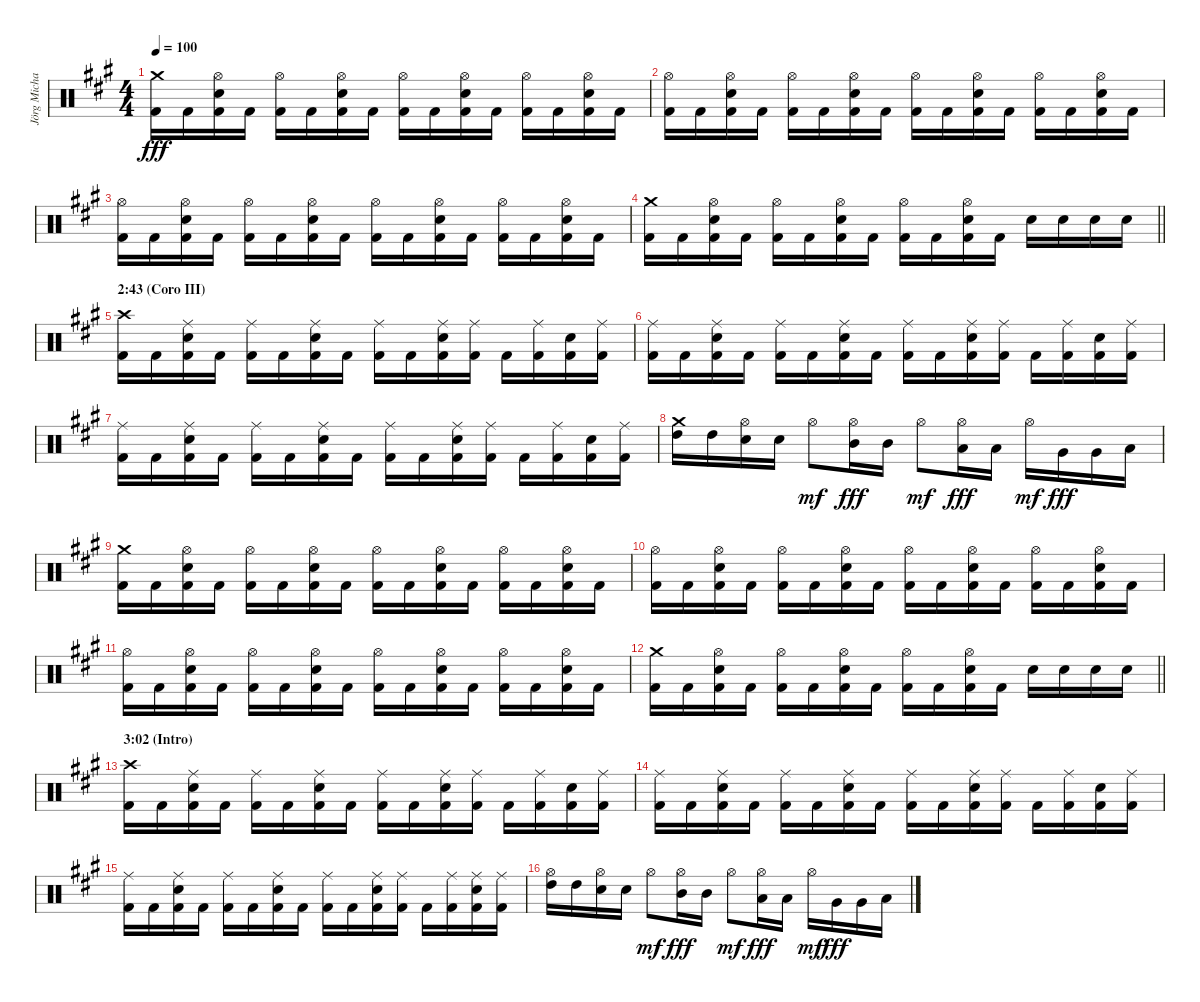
\track ("Jörg Michael (Batería)" "Jörg Micha") {instrument percussion}
\staff {score}
\articulation defaults
\ts (4 4)
\tempo 100
\clef neutral
\ks a
("Crash medium (hit)" "Kick (hit) 2").16{dy fff} "Kick (hit) 2".16 ("Hi-Hat (open)" "Snare (hit) 2" "Kick (hit) 2").16 "Kick (hit) 2".16 ("Hi-Hat (open)" "Kick (hit) 2").16 "Kick (hit) 2".16 ("Hi-Hat (open)" "Snare (hit) 2" "Kick (hit) 2").16 "Kick (hit) 2".16 ("Hi-Hat (open)" "Kick (hit) 2").16 "Kick (hit) 2".16 ("Hi-Hat (open)" "Snare (hit) 2" "Kick (hit) 2").16 "Kick (hit) 2".16 ("Hi-Hat (open)" "Kick (hit) 2").16 "Kick (hit) 2".16 ("Hi-Hat (open)" "Snare (hit) 2" "Kick (hit) 2").16 "Kick (hit) 2".16 |
("Hi-Hat (open)" "Kick (hit) 2").16 "Kick (hit) 2".16 ("Hi-Hat (open)" "Snare (hit) 2" "Kick (hit) 2").16 "Kick (hit) 2".16 ("Hi-Hat (open)" "Kick (hit) 2").16 "Kick (hit) 2".16 ("Hi-Hat (open)" "Snare (hit) 2" "Kick (hit) 2").16 "Kick (hit) 2".16 ("Hi-Hat (open)" "Kick (hit) 2").16 "Kick (hit) 2".16 ("Hi-Hat (open)" "Snare (hit) 2" "Kick (hit) 2").16 "Kick (hit) 2".16 ("Hi-Hat (open)" "Kick (hit) 2").16 "Kick (hit) 2".16 ("Hi-Hat (open)" "Snare (hit) 2" "Kick (hit) 2").16 "Kick (hit) 2".16 |
("Hi-Hat (open)" "Kick (hit) 2").16 "Kick (hit) 2".16 ("Hi-Hat (open)" "Snare (hit) 2" "Kick (hit) 2").16 "Kick (hit) 2".16 ("Hi-Hat (open)" "Kick (hit) 2").16 "Kick (hit) 2".16 ("Hi-Hat (open)" "Snare (hit) 2" "Kick (hit) 2").16 "Kick (hit) 2".16 ("Hi-Hat (open)" "Kick (hit) 2").16 "Kick (hit) 2".16 ("Hi-Hat (open)" "Snare (hit) 2" "Kick (hit) 2").16 "Kick (hit) 2".16 ("Hi-Hat (open)" "Kick (hit) 2").16 "Kick (hit) 2".16 ("Hi-Hat (open)" "Snare (hit) 2" "Kick (hit) 2").16 "Kick (hit) 2".16 |
\barLineRight lightlight
("Crash medium (hit)" "Kick (hit) 2").16 "Kick (hit) 2".16 ("Hi-Hat (open)" "Snare (hit) 2" "Kick (hit) 2").16 "Kick (hit) 2".16 ("Hi-Hat (open)" "Kick (hit) 2").16 "Kick (hit) 2".16 ("Hi-Hat (open)" "Snare (hit) 2" "Kick (hit) 2").16 "Kick (hit) 2".16 ("Hi-Hat (open)" "Kick (hit) 2").16 "Kick (hit) 2".16 ("Hi-Hat (open)" "Snare (hit) 2" "Kick (hit) 2").16 "Kick (hit) 2".16 "Snare (hit) 2".16 "Snare (hit) 2".16 "Snare (hit) 2".16 "Snare (hit) 2".16 |
\section ("" "2:43 (Coro III)")
("Crash high (hit)" "Kick (hit) 2").16{volume 13} "Kick (hit) 2".16 ("Ride (middle)" "Snare (hit) 2" "Kick (hit) 2").16 "Kick (hit) 2".16 ("Ride (middle)" "Kick (hit) 2").16 "Kick (hit) 2".16 ("Ride (middle)" "Snare (hit) 2" "Kick (hit) 2").16 "Kick (hit) 2".16 ("Ride (middle)" "Kick (hit) 2").16 "Kick (hit) 2".16 ("Ride (middle)" "Snare (hit) 2" "Kick (hit) 2").16 ("Ride (middle)" "Kick (hit) 2").16 "Kick (hit) 2".16 ("Ride (middle)" "Kick (hit) 2").16 ("Snare (hit) 2" "Kick (hit) 2").16 ("Ride (middle)" "Kick (hit) 2").16 |
("Ride (middle)" "Kick (hit) 2").16 "Kick (hit) 2".16 ("Ride (middle)" "Snare (hit) 2" "Kick (hit) 2").16 "Kick (hit) 2".16 ("Ride (middle)" "Kick (hit) 2").16 "Kick (hit) 2".16 ("Ride (middle)" "Snare (hit) 2" "Kick (hit) 2").16 "Kick (hit) 2".16 ("Ride (middle)" "Kick (hit) 2").16 "Kick (hit) 2".16 ("Ride (middle)" "Snare (hit) 2" "Kick (hit) 2").16 ("Ride (middle)" "Kick (hit) 2").16 "Kick (hit) 2".16 ("Ride (middle)" "Kick (hit) 2").16 ("Snare (hit) 2" "Kick (hit) 2").16 ("Ride (middle)" "Kick (hit) 2").16 |
("Ride (middle)" "Kick (hit) 2").16 "Kick (hit) 2".16 ("Ride (middle)" "Snare (hit) 2" "Kick (hit) 2").16 "Kick (hit) 2".16 ("Ride (middle)" "Kick (hit) 2").16 "Kick (hit) 2".16 ("Ride (middle)" "Snare (hit) 2" "Kick (hit) 2").16 "Kick (hit) 2".16 ("Ride (middle)" "Kick (hit) 2").16 "Kick (hit) 2".16 ("Ride (middle)" "Snare (hit) 2" "Kick (hit) 2").16 ("Ride (middle)" "Kick (hit) 2").16 "Kick (hit) 2".16 ("Ride (middle)" "Kick (hit) 2").16 ("Snare (hit) 2" "Kick (hit) 2").16 ("Ride (middle)" "Kick (hit) 2").16 |
("Crash medium (hit)" "High Tom (hit)").16 "High Tom (hit)".16 ("Hi-Hat (open)" "Snare (hit) 2").16 "Snare (hit) 2".16 "Hi-Hat (open)".8{dy mf} ("Hi-Hat (open)" "Mid Tom (hit)").16{dy fff} "Mid Tom (hit)".16 "Hi-Hat (open)".8{dy mf} ("Hi-Hat (open)" "Low Tom (hit)").16{dy fff} "Low Tom (hit)".16 "Hi-Hat (open)".16{dy mf} "Very Low Tom (hit)".16{dy fff} "Very Low Tom (hit)".16 "Low Floor Tom (hit)".16 |
("Crash medium (hit)" "Kick (hit) 2").16 "Kick (hit) 2".16 ("Hi-Hat (open)" "Snare (hit) 2" "Kick (hit) 2").16 "Kick (hit) 2".16 ("Hi-Hat (open)" "Kick (hit) 2").16 "Kick (hit) 2".16 ("Hi-Hat (open)" "Snare (hit) 2" "Kick (hit) 2").16 "Kick (hit) 2".16 ("Hi-Hat (open)" "Kick (hit) 2").16 "Kick (hit) 2".16 ("Hi-Hat (open)" "Snare (hit) 2" "Kick (hit) 2").16 "Kick (hit) 2".16 ("Hi-Hat (open)" "Kick (hit) 2").16 "Kick (hit) 2".16 ("Hi-Hat (open)" "Snare (hit) 2" "Kick (hit) 2").16 "Kick (hit) 2".16 |
("Hi-Hat (open)" "Kick (hit) 2").16 "Kick (hit) 2".16 ("Hi-Hat (open)" "Snare (hit) 2" "Kick (hit) 2").16 "Kick (hit) 2".16 ("Hi-Hat (open)" "Kick (hit) 2").16 "Kick (hit) 2".16 ("Hi-Hat (open)" "Snare (hit) 2" "Kick (hit) 2").16 "Kick (hit) 2".16 ("Hi-Hat (open)" "Kick (hit) 2").16 "Kick (hit) 2".16 ("Hi-Hat (open)" "Snare (hit) 2" "Kick (hit) 2").16 "Kick (hit) 2".16 ("Hi-Hat (open)" "Kick (hit) 2").16 "Kick (hit) 2".16 ("Hi-Hat (open)" "Snare (hit) 2" "Kick (hit) 2").16 "Kick (hit) 2".16 |
("Hi-Hat (open)" "Kick (hit) 2").16 "Kick (hit) 2".16 ("Hi-Hat (open)" "Snare (hit) 2" "Kick (hit) 2").16 "Kick (hit) 2".16 ("Hi-Hat (open)" "Kick (hit) 2").16 "Kick (hit) 2".16 ("Hi-Hat (open)" "Snare (hit) 2" "Kick (hit) 2").16 "Kick (hit) 2".16 ("Hi-Hat (open)" "Kick (hit) 2").16 "Kick (hit) 2".16 ("Hi-Hat (open)" "Snare (hit) 2" "Kick (hit) 2").16 "Kick (hit) 2".16 ("Hi-Hat (open)" "Kick (hit) 2").16 "Kick (hit) 2".16 ("Hi-Hat (open)" "Snare (hit) 2" "Kick (hit) 2").16 "Kick (hit) 2".16 |
\barLineRight lightlight
("Crash medium (hit)" "Kick (hit) 2").16 "Kick (hit) 2".16 ("Hi-Hat (open)" "Snare (hit) 2" "Kick (hit) 2").16 "Kick (hit) 2".16 ("Hi-Hat (open)" "Kick (hit) 2").16 "Kick (hit) 2".16 ("Hi-Hat (open)" "Snare (hit) 2" "Kick (hit) 2").16 "Kick (hit) 2".16 ("Hi-Hat (open)" "Kick (hit) 2").16 "Kick (hit) 2".16 ("Hi-Hat (open)" "Snare (hit) 2" "Kick (hit) 2").16 "Kick (hit) 2".16 "Snare (hit) 2".16 "Snare (hit) 2".16 "Snare (hit) 2".16 "Snare (hit) 2".16 |
\section ("" "3:02 (Intro)")
("Crash high (hit)" "Kick (hit) 2").16 "Kick (hit) 2".16 ("Ride (middle)" "Snare (hit) 2" "Kick (hit) 2").16 "Kick (hit) 2".16 ("Ride (middle)" "Kick (hit) 2").16 "Kick (hit) 2".16 ("Ride (middle)" "Snare (hit) 2" "Kick (hit) 2").16 "Kick (hit) 2".16 ("Ride (middle)" "Kick (hit) 2").16 "Kick (hit) 2".16 ("Ride (middle)" "Snare (hit) 2" "Kick (hit) 2").16 ("Ride (middle)" "Kick (hit) 2").16 "Kick (hit) 2".16 ("Ride (middle)" "Kick (hit) 2").16 ("Snare (hit) 2" "Kick (hit) 2").16 ("Ride (middle)" "Kick (hit) 2").16 |
("Ride (middle)" "Kick (hit) 2").16 "Kick (hit) 2".16 ("Ride (middle)" "Snare (hit) 2" "Kick (hit) 2").16 "Kick (hit) 2".16 ("Ride (middle)" "Kick (hit) 2").16 "Kick (hit) 2".16 ("Ride (middle)" "Snare (hit) 2" "Kick (hit) 2").16 "Kick (hit) 2".16 ("Ride (middle)" "Kick (hit) 2").16 "Kick (hit) 2".16 ("Ride (middle)" "Snare (hit) 2" "Kick (hit) 2").16 ("Ride (middle)" "Kick (hit) 2").16 "Kick (hit) 2".16 ("Ride (middle)" "Kick (hit) 2").16 ("Snare (hit) 2" "Kick (hit) 2").16 ("Ride (middle)" "Kick (hit) 2").16 |
("Ride (middle)" "Kick (hit) 2").16 "Kick (hit) 2".16 ("Ride (middle)" "Snare (hit) 2" "Kick (hit) 2").16 "Kick (hit) 2".16 ("Ride (middle)" "Kick (hit) 2").16 "Kick (hit) 2".16 ("Ride (middle)" "Snare (hit) 2" "Kick (hit) 2").16 "Kick (hit) 2".16 ("Ride (middle)" "Kick (hit) 2").16 "Kick (hit) 2".16 ("Ride (middle)" "Snare (hit) 2" "Kick (hit) 2").16 ("Ride (middle)" "Kick (hit) 2").16 "Kick (hit) 2".16 ("Ride (middle)" "Kick (hit) 2").16 ("Ride (middle)" "Snare (hit) 2" "Kick (hit) 2").16 ("Ride (middle)" "Kick (hit) 2").16 |
("Hi-Hat (open)" "High Tom (hit)").16 "High Tom (hit)".16 ("Hi-Hat (open)" "Snare (hit) 2").16 "Snare (hit) 2".16 "Hi-Hat (open)".8{dy mf} ("Hi-Hat (open)" "Mid Tom (hit)").16{dy fff} "Mid Tom (hit)".16 "Hi-Hat (open)".8{dy mf} ("Hi-Hat (open)" "Low Tom (hit)").16{dy fff} "Low Tom (hit)".16 "Hi-Hat (open)".16{dy mf} "Very Low Tom (hit)".16{dy fff} "Very Low Tom (hit)".16 "Low Floor Tom (hit)".16
